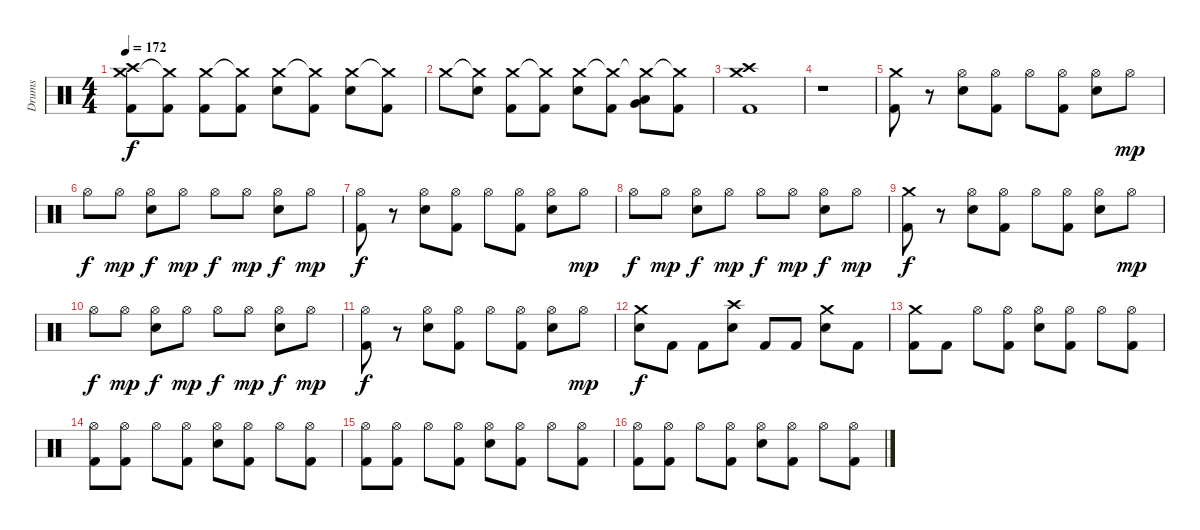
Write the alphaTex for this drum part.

\track ("Drums" "Drums") {instrument percussion}
\staff {score}
\articulation defaults
\ts (4 4)
\tempo 172
\clef neutral
\ks c
("Crash medium (hit)" "Crash high (hit)" "Kick (hit) 2").8{dy f} ("Crash medium (hit)"{t} "Kick (hit) 2").8 ("Crash medium (hit)" "Kick (hit) 2").8 ("Crash medium (hit)"{t} "Kick (hit) 2").8 ("Crash medium (hit)" "Electric Snare (hit)").8 ("Crash medium (hit)"{t} "Kick (hit) 2").8 ("Crash medium (hit)" "Electric Snare (hit)").8 ("Crash medium (hit)"{t} "Kick (hit) 2").8 |
"Crash medium (hit)".8 ("Crash medium (hit)"{t} "Electric Snare (hit)").8 ("Crash medium (hit)" "Kick (hit) 2").8 ("Crash medium (hit)"{t} "Kick (hit) 2").8 ("Crash medium (hit)" "Electric Snare (hit)").8 ("Crash medium (hit)"{t} "Kick (hit) 2").8 ("Crash medium (hit)"{t} "Low Floor Tom (hit)" "Very Low Tom (hit)").8 ("Crash medium (hit)"{t} "Kick (hit) 2").8 |
("Crash medium (hit)" "Crash high (hit)" "Kick (hit) 2").1 |
r.1 |
("Crash medium (hit)" "Kick (hit) 2").8 r.8 ("Hi-Hat (open)" "Electric Snare (hit)").8 ("Hi-Hat (open)" "Kick (hit) 2").8 "Hi-Hat (open)".8 ("Hi-Hat (open)" "Kick (hit) 2").8 ("Hi-Hat (open)" "Electric Snare (hit)").8 "Hi-Hat (open)".8{dy mp} |
"Hi-Hat (open)".8{dy f} "Hi-Hat (open)".8{dy mp} ("Hi-Hat (open)" "Electric Snare (hit)").8{dy f} "Hi-Hat (open)".8{dy mp} "Hi-Hat (open)".8{dy f} "Hi-Hat (open)".8{dy mp} ("Hi-Hat (open)" "Electric Snare (hit)").8{dy f} "Hi-Hat (open)".8{dy mp} |
("Hi-Hat (open)" "Kick (hit) 2").8{dy f} r.8 ("Hi-Hat (open)" "Electric Snare (hit)").8 ("Hi-Hat (open)" "Kick (hit) 2").8 "Hi-Hat (open)".8 ("Hi-Hat (open)" "Kick (hit) 2").8 ("Hi-Hat (open)" "Electric Snare (hit)").8 "Hi-Hat (open)".8{dy mp} |
"Hi-Hat (open)".8{dy f} "Hi-Hat (open)".8{dy mp} ("Hi-Hat (open)" "Electric Snare (hit)").8{dy f} "Hi-Hat (open)".8{dy mp} "Hi-Hat (open)".8{dy f} "Hi-Hat (open)".8{dy mp} ("Hi-Hat (open)" "Electric Snare (hit)").8{dy f} "Hi-Hat (open)".8{dy mp} |
("Crash medium (hit)" "Kick (hit) 2").8{dy f} r.8 ("Hi-Hat (open)" "Electric Snare (hit)").8 ("Hi-Hat (open)" "Kick (hit) 2").8 "Hi-Hat (open)".8 ("Hi-Hat (open)" "Kick (hit) 2").8 ("Hi-Hat (open)" "Electric Snare (hit)").8 "Hi-Hat (open)".8{dy mp} |
"Hi-Hat (open)".8{dy f} "Hi-Hat (open)".8{dy mp} ("Hi-Hat (open)" "Electric Snare (hit)").8{dy f} "Hi-Hat (open)".8{dy mp} "Hi-Hat (open)".8{dy f} "Hi-Hat (open)".8{dy mp} ("Hi-Hat (open)" "Electric Snare (hit)").8{dy f} "Hi-Hat (open)".8{dy mp} |
("Hi-Hat (open)" "Kick (hit) 2").8{dy f} r.8 ("Hi-Hat (open)" "Electric Snare (hit)").8 ("Hi-Hat (open)" "Kick (hit) 2").8 "Hi-Hat (open)".8 ("Hi-Hat (open)" "Kick (hit) 2").8 ("Hi-Hat (open)" "Electric Snare (hit)").8 "Hi-Hat (open)".8{dy mp} |
("Crash medium (hit)" "Electric Snare (hit)").8{dy f} "Kick (hit) 2".8 "Kick (hit) 2".8 ("Crash high (hit)" "Electric Snare (hit)").8 "Kick (hit) 2".8 "Kick (hit) 2".8 ("Crash medium (hit)" "Electric Snare (hit)").8 "Kick (hit) 2".8 |
("Crash medium (hit)" "Kick (hit) 2").8 "Kick (hit) 2".8 "Hi-Hat (open)".8 ("Hi-Hat (open)" "Kick (hit) 2").8 ("Hi-Hat (open)" "Electric Snare (hit)").8 ("Hi-Hat (open)" "Kick (hit) 2").8 "Hi-Hat (open)".8 ("Hi-Hat (open)" "Kick (hit) 2").8 |
("Hi-Hat (open)" "Kick (hit) 2").8 ("Hi-Hat (open)" "Kick (hit) 2").8 "Hi-Hat (open)".8 ("Hi-Hat (open)" "Kick (hit) 2").8 ("Hi-Hat (open)" "Electric Snare (hit)").8 ("Hi-Hat (open)" "Kick (hit) 2").8 "Hi-Hat (open)".8 ("Hi-Hat (open)" "Kick (hit) 2").8 |
("Hi-Hat (open)" "Kick (hit) 2").8 ("Hi-Hat (open)" "Kick (hit) 2").8 "Hi-Hat (open)".8 ("Hi-Hat (open)" "Kick (hit) 2").8 ("Hi-Hat (open)" "Electric Snare (hit)").8 ("Hi-Hat (open)" "Kick (hit) 2").8 "Hi-Hat (open)".8 ("Hi-Hat (open)" "Kick (hit) 2").8 |
("Hi-Hat (open)" "Kick (hit) 2").8 ("Hi-Hat (open)" "Kick (hit) 2").8 "Hi-Hat (open)".8 ("Hi-Hat (open)" "Kick (hit) 2").8 ("Hi-Hat (open)" "Electric Snare (hit)").8 ("Hi-Hat (open)" "Kick (hit) 2").8 "Hi-Hat (open)".8 ("Hi-Hat (open)" "Kick (hit) 2").8
